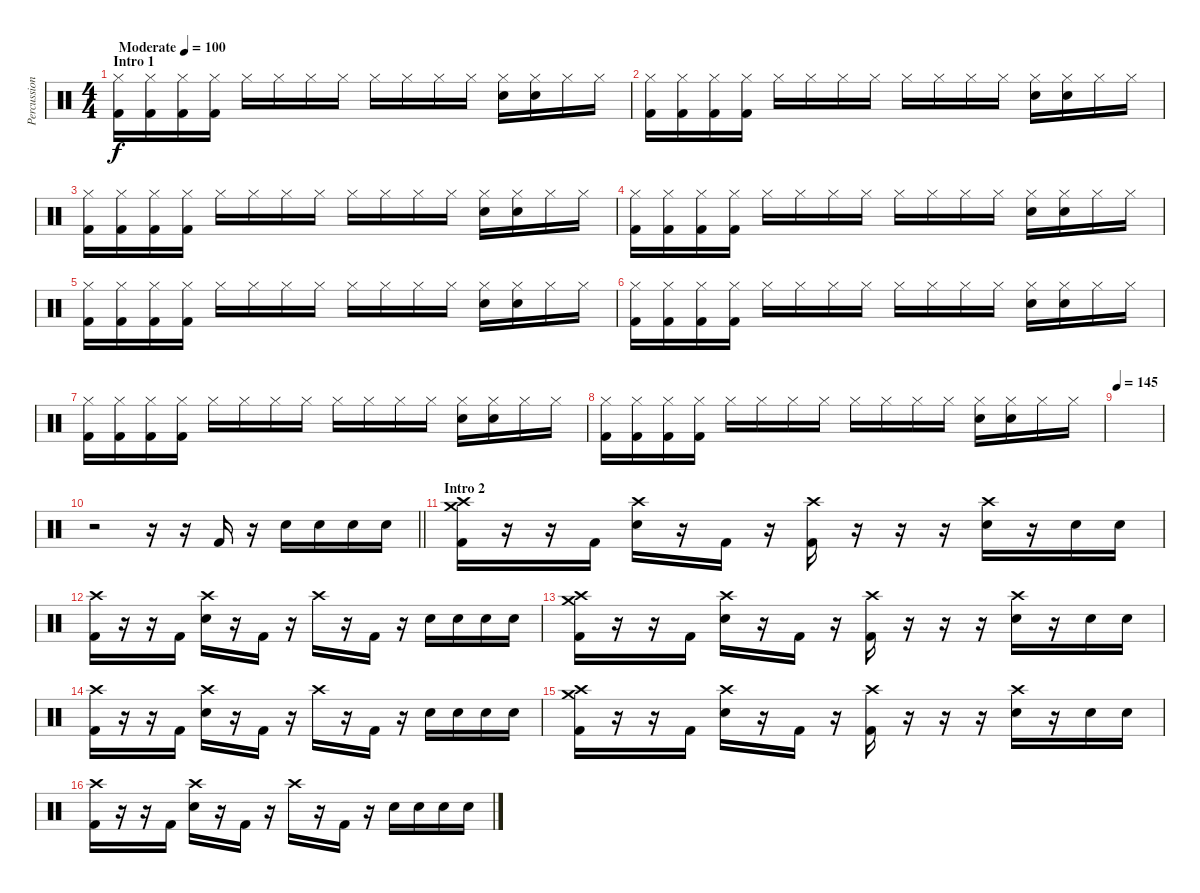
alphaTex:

\track ("Percussion" "Percussion") {instrument percussion}
\staff {score}
\articulation defaults
\ts (4 4)
\section ("" "Intro 1")
\tempo (100 "Moderate")
\clef neutral
\ks c
("Hi-Hat (closed)" "Kick (hit) 2").16{dy f} ("Hi-Hat (closed)" "Kick (hit) 2").16 ("Hi-Hat (closed)" "Kick (hit) 2").16 ("Hi-Hat (closed)" "Kick (hit) 2").16 "Hi-Hat (closed)".16 "Hi-Hat (closed)".16 "Hi-Hat (closed)".16 "Hi-Hat (closed)".16 "Hi-Hat (closed)".16 "Hi-Hat (closed)".16 "Hi-Hat (closed)".16 "Hi-Hat (closed)".16 ("Hi-Hat (closed)" "Electric Snare (hit)").16 ("Hi-Hat (closed)" "Electric Snare (hit)").16 "Hi-Hat (closed)".16 "Hi-Hat (closed)".16 |
("Hi-Hat (closed)" "Kick (hit) 2").16 ("Hi-Hat (closed)" "Kick (hit) 2").16 ("Hi-Hat (closed)" "Kick (hit) 2").16 ("Hi-Hat (closed)" "Kick (hit) 2").16 "Hi-Hat (closed)".16 "Hi-Hat (closed)".16 "Hi-Hat (closed)".16 "Hi-Hat (closed)".16 "Hi-Hat (closed)".16 "Hi-Hat (closed)".16 "Hi-Hat (closed)".16 "Hi-Hat (closed)".16 ("Hi-Hat (closed)" "Electric Snare (hit)").16 ("Hi-Hat (closed)" "Electric Snare (hit)").16 "Hi-Hat (closed)".16 "Hi-Hat (closed)".16 |
("Hi-Hat (closed)" "Kick (hit) 2").16 ("Hi-Hat (closed)" "Kick (hit) 2").16 ("Hi-Hat (closed)" "Kick (hit) 2").16 ("Hi-Hat (closed)" "Kick (hit) 2").16 "Hi-Hat (closed)".16 "Hi-Hat (closed)".16 "Hi-Hat (closed)".16 "Hi-Hat (closed)".16 "Hi-Hat (closed)".16 "Hi-Hat (closed)".16 "Hi-Hat (closed)".16 "Hi-Hat (closed)".16 ("Hi-Hat (closed)" "Electric Snare (hit)").16 ("Hi-Hat (closed)" "Electric Snare (hit)").16 "Hi-Hat (closed)".16 "Hi-Hat (closed)".16 |
("Hi-Hat (closed)" "Kick (hit) 2").16 ("Hi-Hat (closed)" "Kick (hit) 2").16 ("Hi-Hat (closed)" "Kick (hit) 2").16 ("Hi-Hat (closed)" "Kick (hit) 2").16 "Hi-Hat (closed)".16 "Hi-Hat (closed)".16 "Hi-Hat (closed)".16 "Hi-Hat (closed)".16 "Hi-Hat (closed)".16 "Hi-Hat (closed)".16 "Hi-Hat (closed)".16 "Hi-Hat (closed)".16 ("Hi-Hat (closed)" "Electric Snare (hit)").16 ("Hi-Hat (closed)" "Electric Snare (hit)").16 "Hi-Hat (closed)".16 "Hi-Hat (closed)".16 |
("Hi-Hat (closed)" "Kick (hit) 2").16 ("Hi-Hat (closed)" "Kick (hit) 2").16 ("Hi-Hat (closed)" "Kick (hit) 2").16 ("Hi-Hat (closed)" "Kick (hit) 2").16 "Hi-Hat (closed)".16 "Hi-Hat (closed)".16 "Hi-Hat (closed)".16 "Hi-Hat (closed)".16 "Hi-Hat (closed)".16 "Hi-Hat (closed)".16 "Hi-Hat (closed)".16 "Hi-Hat (closed)".16 ("Hi-Hat (closed)" "Electric Snare (hit)").16 ("Hi-Hat (closed)" "Electric Snare (hit)").16 "Hi-Hat (closed)".16 "Hi-Hat (closed)".16 |
("Hi-Hat (closed)" "Kick (hit) 2").16 ("Hi-Hat (closed)" "Kick (hit) 2").16 ("Hi-Hat (closed)" "Kick (hit) 2").16 ("Hi-Hat (closed)" "Kick (hit) 2").16 "Hi-Hat (closed)".16 "Hi-Hat (closed)".16 "Hi-Hat (closed)".16 "Hi-Hat (closed)".16 "Hi-Hat (closed)".16 "Hi-Hat (closed)".16 "Hi-Hat (closed)".16 "Hi-Hat (closed)".16 ("Hi-Hat (closed)" "Electric Snare (hit)").16 ("Hi-Hat (closed)" "Electric Snare (hit)").16 "Hi-Hat (closed)".16 "Hi-Hat (closed)".16 |
("Hi-Hat (closed)" "Kick (hit) 2").16 ("Hi-Hat (closed)" "Kick (hit) 2").16 ("Hi-Hat (closed)" "Kick (hit) 2").16 ("Hi-Hat (closed)" "Kick (hit) 2").16 "Hi-Hat (closed)".16 "Hi-Hat (closed)".16 "Hi-Hat (closed)".16 "Hi-Hat (closed)".16 "Hi-Hat (closed)".16 "Hi-Hat (closed)".16 "Hi-Hat (closed)".16 "Hi-Hat (closed)".16 ("Hi-Hat (closed)" "Electric Snare (hit)").16 ("Hi-Hat (closed)" "Electric Snare (hit)").16 "Hi-Hat (closed)".16 "Hi-Hat (closed)".16 |
("Hi-Hat (closed)" "Kick (hit) 2").16 ("Hi-Hat (closed)" "Kick (hit) 2").16 ("Hi-Hat (closed)" "Kick (hit) 2").16 ("Hi-Hat (closed)" "Kick (hit) 2").16 "Hi-Hat (closed)".16 "Hi-Hat (closed)".16 "Hi-Hat (closed)".16 "Hi-Hat (closed)".16 "Hi-Hat (closed)".16 "Hi-Hat (closed)".16 "Hi-Hat (closed)".16 "Hi-Hat (closed)".16 ("Hi-Hat (closed)" "Electric Snare (hit)").16 ("Hi-Hat (closed)" "Electric Snare (hit)").16 "Hi-Hat (closed)".16 "Hi-Hat (closed)".16 |
\tempo 145
|
\barLineRight lightlight
r.2 r.16 r.16 "Kick (hit) 2".16 r.16 "Electric Snare (hit)".16 "Electric Snare (hit)".16 "Electric Snare (hit)".16 "Electric Snare (hit)".16 |
\section ("" "Intro 2")
("Crash medium (hit)" "Crash high (hit)" "Kick (hit) 2").16 r.16 r.16 "Kick (hit) 2".16 ("Crash high (hit)" "Electric Snare (hit)").16 r.16 "Kick (hit) 2".16 r.16 ("Crash high (hit)" "Kick (hit) 2").16 r.16 r.16 r.16 ("Crash high (hit)" "Electric Snare (hit)").16 r.16 "Electric Snare (hit)".16 "Electric Snare (hit)".16 |
("Crash high (hit)" "Kick (hit) 2").16 r.16 r.16 "Kick (hit) 2".16 ("Crash high (hit)" "Electric Snare (hit)").16 r.16 "Kick (hit) 2".16 r.16 "Crash high (hit)".16 r.16 "Kick (hit) 2".16 r.16 "Electric Snare (hit)".16 "Electric Snare (hit)".16 "Electric Snare (hit)".16 "Electric Snare (hit)".16 |
("Crash medium (hit)" "Crash high (hit)" "Kick (hit) 2").16 r.16 r.16 "Kick (hit) 2".16 ("Crash high (hit)" "Electric Snare (hit)").16 r.16 "Kick (hit) 2".16 r.16 ("Crash high (hit)" "Kick (hit) 2").16 r.16 r.16 r.16 ("Crash high (hit)" "Electric Snare (hit)").16 r.16 "Electric Snare (hit)".16 "Electric Snare (hit)".16 |
("Crash high (hit)" "Kick (hit) 2").16 r.16 r.16 "Kick (hit) 2".16 ("Crash high (hit)" "Electric Snare (hit)").16 r.16 "Kick (hit) 2".16 r.16 "Crash high (hit)".16 r.16 "Kick (hit) 2".16 r.16 "Electric Snare (hit)".16 "Electric Snare (hit)".16 "Electric Snare (hit)".16 "Electric Snare (hit)".16 |
("Crash medium (hit)" "Crash high (hit)" "Kick (hit) 2").16 r.16 r.16 "Kick (hit) 2".16 ("Crash high (hit)" "Electric Snare (hit)").16 r.16 "Kick (hit) 2".16 r.16 ("Crash high (hit)" "Kick (hit) 2").16 r.16 r.16 r.16 ("Crash high (hit)" "Electric Snare (hit)").16 r.16 "Electric Snare (hit)".16 "Electric Snare (hit)".16 |
("Crash high (hit)" "Kick (hit) 2").16 r.16 r.16 "Kick (hit) 2".16 ("Crash high (hit)" "Electric Snare (hit)").16 r.16 "Kick (hit) 2".16 r.16 "Crash high (hit)".16 r.16 "Kick (hit) 2".16 r.16 "Electric Snare (hit)".16 "Electric Snare (hit)".16 "Electric Snare (hit)".16 "Electric Snare (hit)".16
